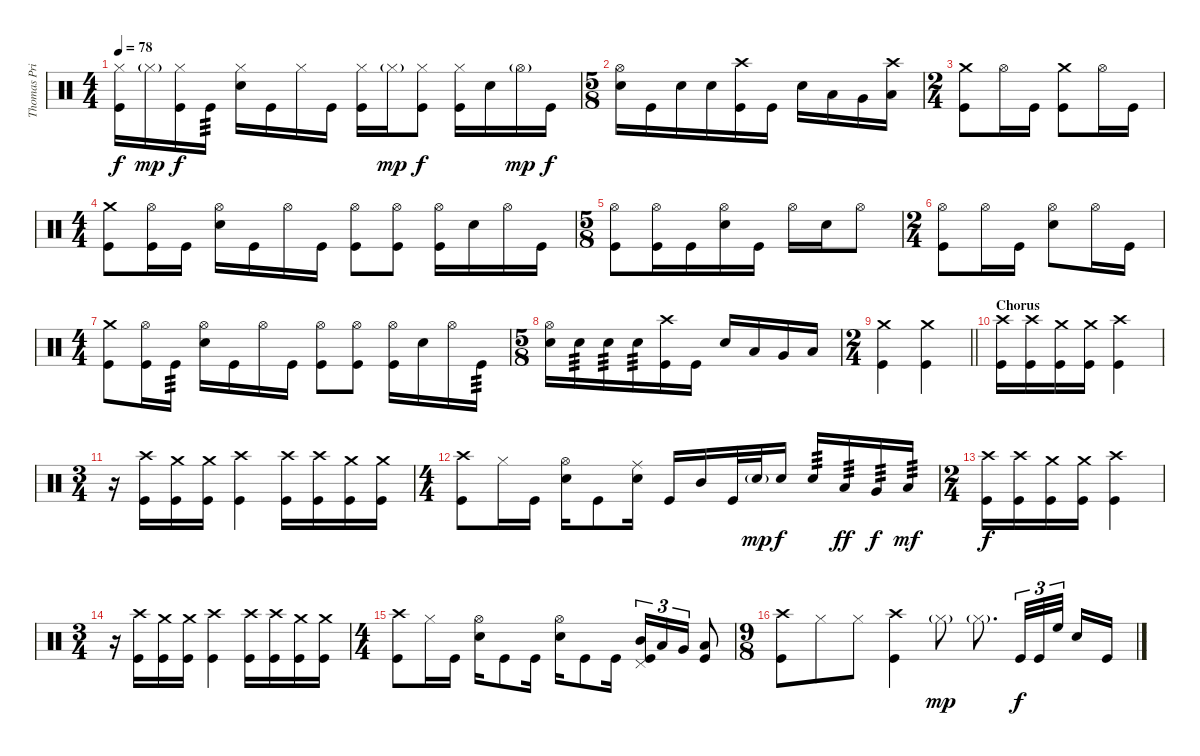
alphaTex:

\track ("Thomas Pridgen" "Thomas Pri") {instrument percussion}
\staff {score}
\articulation defaults
\ts (4 4)
\tempo 78
\clef neutral
\ks c
("Hi-Hat (closed)" "Kick (hit)").16{dy f} "Hi-Hat (closed)"{g}.16{dy mp} ("Hi-Hat (closed)" "Kick (hit)").16{dy f} "Kick (hit)".16{tp 3} ("Hi-Hat (closed)" "Snare (hit) 2").16 "Kick (hit)".16 "Hi-Hat (closed)".16 "Kick (hit)".16 ("Hi-Hat (closed)" "Kick (hit)").16 "Hi-Hat (closed)"{g}.16{dy mp} ("Hi-Hat (closed)" "Kick (hit)").8{dy f} ("Hi-Hat (closed)" "Kick (hit)").16 "Snare (hit) 2".16 "Hi-Hat (open)"{g}.16{dy mp} "Kick (hit)".16{dy f} |
\ts (5 8)
("Hi-Hat (open)" "Snare (hit) 2").16 "Kick (hit)".16 "Snare (hit) 2".16 "Snare (hit) 2".16 ("Crash high (hit)" "Kick (hit)").16 "Kick (hit)".16 "Snare (hit) 2".16 "Low Tom (hit)".16 "Very Low Tom (hit)".16 ("Crash high (hit)" "Low Floor Tom (hit)").16 |
\ts (2 4)
("Crash medium (hit)" "Kick (hit)").8 "Hi-Hat (open)".16 "Kick (hit)".16 ("Crash medium (hit)" "Kick (hit)").8 "Hi-Hat (open)".16 "Kick (hit)".16 |
\ts (4 4)
("Crash medium (hit)" "Kick (hit)").8 ("Hi-Hat (open)" "Kick (hit)").16 "Kick (hit)".16 ("Hi-Hat (open)" "Snare (hit) 2").16 "Kick (hit)".16 "Hi-Hat (open)".16 "Kick (hit)".16 ("Hi-Hat (open)" "Kick (hit)").8 ("Hi-Hat (open)" "Kick (hit)").8 ("Hi-Hat (open)" "Kick (hit)").16 "Snare (hit) 2".16 "Hi-Hat (open)".16 "Kick (hit)".16 |
\ts (5 8)
("Hi-Hat (open)" "Kick (hit)").8 ("Hi-Hat (open)" "Kick (hit)").16 "Kick (hit)".16 ("Hi-Hat (open)" "Snare (hit) 2").16 "Kick (hit)".16 "Hi-Hat (open)".16 "Snare (hit) 2".16 "Hi-Hat (open)".8 |
\ts (2 4)
("Hi-Hat (open)" "Kick (hit)").8 "Hi-Hat (open)".16 "Kick (hit)".16 ("Hi-Hat (open)" "Snare (hit) 2").8 "Hi-Hat (open)".16 "Kick (hit)".16 |
\ts (4 4)
("Crash medium (hit)" "Kick (hit)").8 ("Hi-Hat (open)" "Kick (hit)").16 "Kick (hit)".16{tp 3} ("Hi-Hat (open)" "Snare (hit) 2").16 "Kick (hit)".16 "Hi-Hat (open)".16 "Kick (hit)".16 ("Hi-Hat (open)" "Kick (hit)").8 ("Hi-Hat (open)" "Kick (hit)").8 ("Hi-Hat (open)" "Kick (hit)").16 "Snare (hit) 2".16 "Hi-Hat (open)".16 "Kick (hit)".16{tp 3} |
\ts (5 8)
("Hi-Hat (open)" "Snare (hit) 2").16 "Snare (hit) 2".16{tp 3} "Snare (hit) 2".16{tp 3} "Snare (hit) 2".16{tp 3} ("Crash high (hit)" "Kick (hit)").16 "Kick (hit)".16 "Snare (hit) 2".16 "Low Tom (hit)".16 "Very Low Tom (hit)".16 "Low Floor Tom (hit)".16 |
\ts (2 4)
\barLineRight lightlight
("Crash medium (hit)" "Kick (hit)").4 ("Crash medium (hit)" "Kick (hit)").4 |
\section ("" "Chorus")
("Crash high (hit)" "Kick (hit)").16 ("Crash high (hit)" "Kick (hit)").16 ("Crash medium (hit)" "Kick (hit)").16 ("Crash medium (hit)" "Kick (hit)").16 ("Crash high (hit)" "Kick (hit)").4 |
\ts (3 4)
r.16 ("Crash high (hit)" "Kick (hit)").16 ("Crash medium (hit)" "Kick (hit)").16 ("Crash medium (hit)" "Kick (hit)").16 ("Crash high (hit)" "Kick (hit)").4 ("Crash high (hit)" "Kick (hit)").16 ("Crash high (hit)" "Kick (hit)").16 ("Crash medium (hit)" "Kick (hit)").16 ("Crash medium (hit)" "Kick (hit)").16 |
\ts (4 4)
("Crash high (hit)" "Kick (hit)").8 "Hi-Hat (closed)".16 "Kick (hit)".16 ("Hi-Hat (open)" "Snare (hit) 2").16 "Kick (hit)".8 ("Ride (middle)" "Snare (hit) 2").16 "Kick (hit)".16 "Mid Tom (hit)".16 "Kick (hit)".32 "Snare (hit) 2"{g}.32{dy mp} "Snare (hit) 2".16{dy f} "Snare (hit) 2".16{tp 3} "Low Tom (hit)".16{tp 3 dy ff} "Very Low Tom (hit)".16{tp 3 dy f} "Low Floor Tom (hit)".16{tp 3 dy mf} |
\ts (2 4)
("Crash high (hit)" "Kick (hit)").16{dy f} ("Crash high (hit)" "Kick (hit)").16 ("Crash medium (hit)" "Kick (hit)").16 ("Crash medium (hit)" "Kick (hit)").16 ("Crash high (hit)" "Kick (hit)").4 |
\ts (3 4)
r.16 ("Crash high (hit)" "Kick (hit)").16 ("Crash medium (hit)" "Kick (hit)").16 ("Crash medium (hit)" "Kick (hit)").16 ("Crash high (hit)" "Kick (hit)").4 ("Crash high (hit)" "Kick (hit)").16 ("Crash high (hit)" "Kick (hit)").16 ("Crash medium (hit)" "Kick (hit)").16 ("Crash medium (hit)" "Kick (hit)").16 |
\ts (4 4)
("Crash high (hit)" "Kick (hit)").8 "Hi-Hat (closed)".16 "Kick (hit)".16 ("Hi-Hat (open)" "Snare (hit) 2").16 "Kick (hit)".8 "Kick (hit)".16 ("Hi-Hat (open)" "Snare (hit) 2").16 "Kick (hit)".8 "Kick (hit)".16 ("Pedal Hi-Hat (hit)" "Mid Tom (hit)" "Kick (hit)").16{tu (3 2)} "Low Tom (hit)".16{tu (3 2)} "Very Low Tom (hit)".16{tu (3 2)} ("Low Floor Tom (hit)" "Kick (hit)").8 |
\ts (9 8)
("Crash high (hit)" "Kick (hit)").8 "Hi-Hat (closed)".8 "Hi-Hat (closed)".8 ("Crash high (hit)" "Kick (hit)").4 "Hi-Hat (closed)"{g}.8{dy mp} "Hi-Hat (closed)"{g}.8{d} "Kick (hit)".32{tu (3 2) dy f} "Kick (hit)".32{tu (3 2)} "High Floor Tom (hit)".32{tu (3 2) beam splitsecondary} "Snare (hit) 2".16 "Kick (hit)".16
